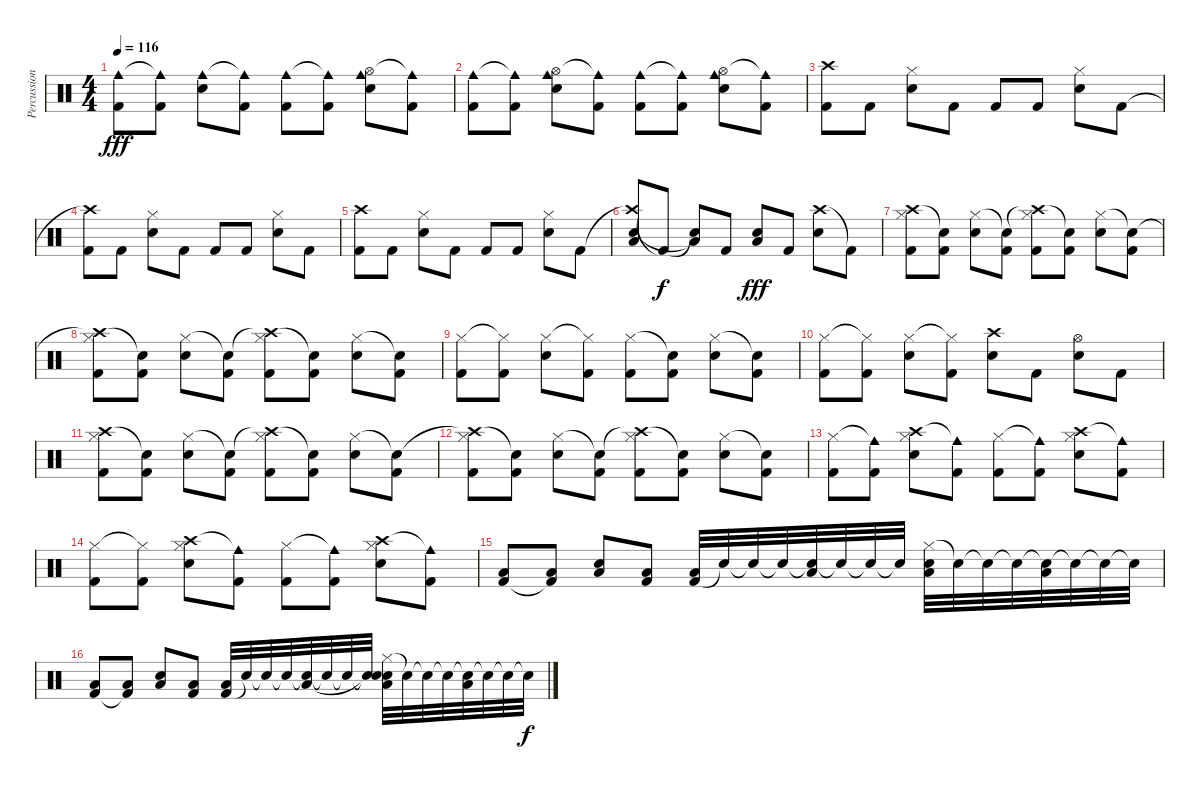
\track ("Percussion" "Percussion") {instrument percussion}
\staff {score}
\articulation defaults
\ts (4 4)
\tempo 116
\clef neutral
\ks c
("Cowbell medium (hit)" "Kick (hit) 2").8{dy fff} ("Cowbell medium (hit)"{t} "Kick (hit) 2").8 ("Cowbell medium (hit)" "Electric Snare (hit)").8 ("Cowbell medium (hit)"{t} "Kick (hit) 2").8 ("Cowbell medium (hit)" "Kick (hit) 2").8 ("Cowbell medium (hit)"{t} "Kick (hit) 2").8 ("Hi-Hat (open)" "Cowbell medium (hit)" "Electric Snare (hit)").8 ("Cowbell medium (hit)"{t} "Kick (hit) 2").8 |
("Cowbell medium (hit)" "Kick (hit) 2").8 ("Cowbell medium (hit)"{t} "Kick (hit) 2").8 ("Hi-Hat (open)" "Cowbell medium (hit)" "Electric Snare (hit)").8 ("Cowbell medium (hit)"{t} "Kick (hit) 2").8 ("Cowbell medium (hit)" "Kick (hit) 2").8 ("Cowbell medium (hit)"{t} "Kick (hit) 2").8 ("Hi-Hat (open)" "Cowbell medium (hit)" "Electric Snare (hit)").8 ("Cowbell medium (hit)"{t} "Kick (hit) 2").8 |
("Crash high (hit)" "Kick (hit) 2").8 "Kick (hit) 2".8 ("Hi-Hat (closed)" "Electric Snare (hit)").8 "Kick (hit) 2".8 "Kick (hit) 2".8 "Kick (hit) 2".8 ("Hi-Hat (closed)" "Electric Snare (hit)").8 "Kick (hit) 2".8 |
("Crash high (hit)"{t} "Kick (hit) 2").8 "Kick (hit) 2".8 ("Hi-Hat (closed)" "Electric Snare (hit)").8 "Kick (hit) 2".8 "Kick (hit) 2".8 "Kick (hit) 2".8 ("Hi-Hat (closed)" "Electric Snare (hit)").8 "Kick (hit) 2".8 |
("Crash high (hit)" "Kick (hit) 2").8 "Kick (hit) 2".8 ("Hi-Hat (closed)" "Electric Snare (hit)").8 "Kick (hit) 2".8 "Kick (hit) 2".8 "Kick (hit) 2".8 ("Hi-Hat (closed)" "Electric Snare (hit)").8 "Kick (hit) 2".8 |
("Crash high (hit)"{t} "Electric Snare (hit)" "Low Floor Tom (hit)").8 "Kick (hit) 2"{t}.8{dy f} ("Electric Snare (hit)"{t} "Low Floor Tom (hit)"{t}).8 "Kick (hit) 2".8 ("Electric Snare (hit)" "Low Floor Tom (hit)").8{dy fff} "Kick (hit) 2".8 ("Crash high (hit)" "Electric Snare (hit)").8 "Kick (hit) 2"{t}.8 |
("Crash high (hit)" "Hi-Hat (closed)" "Kick (hit) 2").8 ("Snare (hit)"{t} "Kick (hit) 2").8 ("Hi-Hat (closed)" "Electric Snare (hit)").8 ("Snare (hit)"{t} "Kick (hit) 2").8 ("Crash high (hit)"{t} "Hi-Hat (closed)" "Kick (hit) 2").8 ("Snare (hit)"{t} "Kick (hit) 2").8 ("Hi-Hat (closed)" "Electric Snare (hit)").8 ("Snare (hit)"{t} "Kick (hit) 2").8 |
("Crash high (hit)"{t} "Hi-Hat (closed)" "Kick (hit) 2").8 ("Snare (hit)"{t} "Kick (hit) 2").8 ("Hi-Hat (closed)" "Electric Snare (hit)").8 ("Snare (hit)"{t} "Kick (hit) 2").8 ("Crash high (hit)"{t} "Hi-Hat (closed)" "Kick (hit) 2").8 ("Snare (hit)"{t} "Kick (hit) 2").8 ("Hi-Hat (closed)" "Electric Snare (hit)").8 ("Snare (hit)"{t} "Kick (hit) 2").8 |
("Hi-Hat (closed)" "Kick (hit) 2").8 ("Hi-Hat (closed)"{t} "Kick (hit) 2").8 ("Hi-Hat (closed)" "Electric Snare (hit)").8 ("Hi-Hat (closed)"{t} "Kick (hit) 2").8 ("Hi-Hat (closed)" "Kick (hit) 2").8 ("Snare (hit)"{t} "Kick (hit) 2").8 ("Hi-Hat (closed)" "Electric Snare (hit)").8 ("Snare (hit)"{t} "Kick (hit) 2").8 |
("Hi-Hat (closed)" "Kick (hit) 2").8 ("Hi-Hat (closed)"{t} "Kick (hit) 2").8 ("Hi-Hat (closed)" "Electric Snare (hit)").8 ("Hi-Hat (closed)"{t} "Kick (hit) 2").8 ("Crash high (hit)" "Electric Snare (hit)").8 "Kick (hit) 2".8 ("Hi-Hat (open)" "Electric Snare (hit)").8 "Kick (hit) 2".8 |
("Crash high (hit)" "Hi-Hat (closed)" "Kick (hit) 2").8 ("Snare (hit)"{t} "Kick (hit) 2").8 ("Hi-Hat (closed)" "Electric Snare (hit)").8 ("Snare (hit)"{t} "Kick (hit) 2").8 ("Crash high (hit)"{t} "Hi-Hat (closed)" "Kick (hit) 2").8 ("Snare (hit)"{t} "Kick (hit) 2").8 ("Hi-Hat (closed)" "Electric Snare (hit)").8 ("Snare (hit)"{t} "Kick (hit) 2").8 |
("Crash high (hit)"{t} "Hi-Hat (closed)" "Kick (hit) 2").8 ("Snare (hit)"{t} "Kick (hit) 2").8 ("Hi-Hat (closed)" "Electric Snare (hit)").8 ("Snare (hit)"{t} "Kick (hit) 2").8 ("Crash high (hit)"{t} "Hi-Hat (closed)" "Kick (hit) 2").8 ("Snare (hit)"{t} "Kick (hit) 2").8 ("Hi-Hat (closed)" "Electric Snare (hit)").8 ("Snare (hit)"{t} "Kick (hit) 2").8 |
("Hi-Hat (closed)" "Kick (hit) 2").8 ("Cowbell medium (hit)"{t} "Kick (hit) 2").8 ("Crash high (hit)" "Hi-Hat (closed)" "Electric Snare (hit)").8 ("Cowbell medium (hit)"{t} "Kick (hit) 2").8 ("Hi-Hat (closed)" "Kick (hit) 2").8 ("Cowbell medium (hit)"{t} "Kick (hit) 2").8 ("Crash high (hit)" "Hi-Hat (closed)" "Electric Snare (hit)").8 ("Cowbell medium (hit)"{t} "Kick (hit) 2").8 |
("Hi-Hat (closed)" "Kick (hit) 2").8 ("Hi-Hat (closed)"{t} "Kick (hit) 2").8 ("Crash high (hit)" "Hi-Hat (closed)" "Electric Snare (hit)").8 ("Cowbell medium (hit)"{t} "Kick (hit) 2").8 ("Hi-Hat (closed)" "Kick (hit) 2").8 ("Cowbell medium (hit)"{t} "Kick (hit) 2").8 ("Crash high (hit)" "Hi-Hat (closed)" "Electric Snare (hit)").8 ("Cowbell medium (hit)"{t} "Kick (hit) 2").8 |
("Kick (hit) 2" "Low Floor Tom (hit)").8 ("Kick (hit) 2"{t} "Low Floor Tom (hit)").8 ("Electric Snare (hit)" "Low Floor Tom (hit)").8 ("Kick (hit) 2" "Low Floor Tom (hit)").8 ("Kick (hit) 2" "Low Floor Tom (hit)").32 "Snare (hit)"{t}.32 "Snare (hit)"{t}.32 "Snare (hit)"{t}.32 ("Snare (hit)"{t} "Low Floor Tom (hit)").32 "Snare (hit)"{t}.32 "Snare (hit)"{t}.32 "Snare (hit)"{t}.32 ("Hi-Hat (closed)" "Electric Snare (hit)" "Low Floor Tom (hit)").32 "Snare (hit)"{t}.32 "Snare (hit)"{t}.32 "Snare (hit)"{t}.32 ("Snare (hit)"{t} "Low Floor Tom (hit)").32 "Snare (hit)"{t}.32 "Snare (hit)"{t}.32 "Snare (hit)"{t}.32 |
("Kick (hit) 2" "Low Floor Tom (hit)").8 ("Kick (hit) 2"{t} "Low Floor Tom (hit)").8 ("Electric Snare (hit)" "Low Floor Tom (hit)").8 ("Kick (hit) 2" "Low Floor Tom (hit)").8 ("Kick (hit) 2" "Low Floor Tom (hit)").32 "Snare (hit)"{t}.32 "Snare (hit)"{t}.32 "Snare (hit)"{t}.32 ("Snare (hit)"{t} "Low Floor Tom (hit)").32 "Snare (hit)"{t}.32 "Snare (hit)"{t}.32 ("Snare (hit)"{t} "Snare (hit)"{t}).32 ("Hi-Hat (closed)" "Electric Snare (hit)" "Low Floor Tom (hit)").32 "Snare (hit)"{t}.32 "Snare (hit)"{t}.32 "Snare (hit)"{t}.32 ("Snare (hit)"{t} "Low Floor Tom (hit)").32 "Snare (hit)"{t}.32 "Snare (hit)"{t}.32 "Snare (hit)"{t}.32{dy f}
